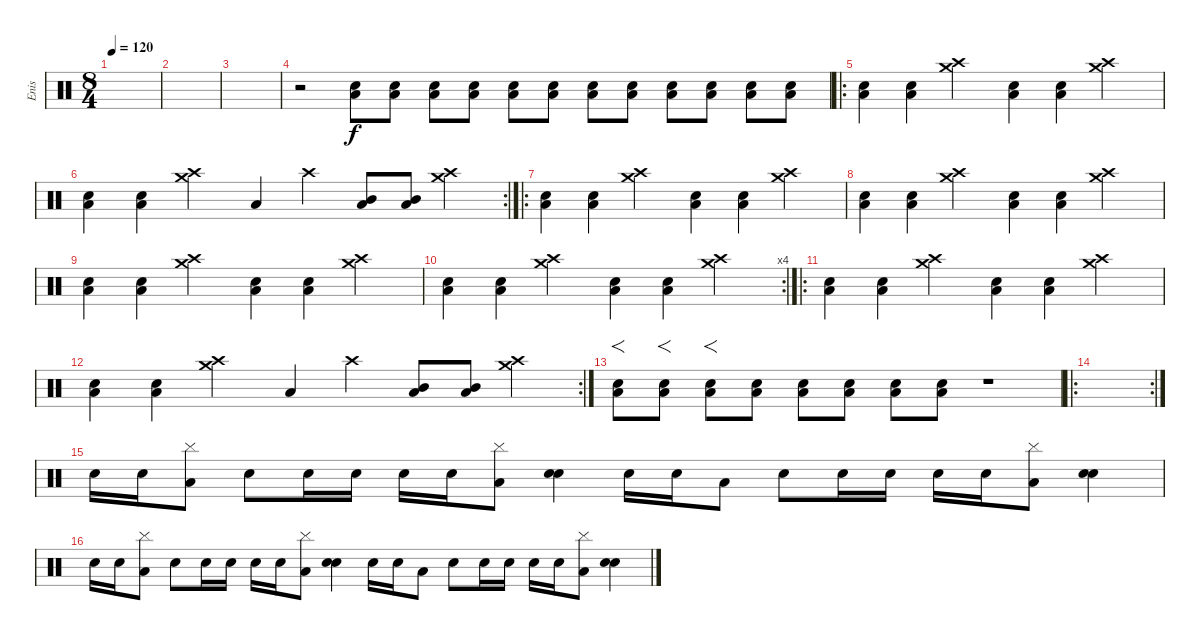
\track ("Enis" "Enis") {instrument percussion}
\staff {score}
\articulation defaults
\ts (8 4)
\tempo 120
\clef neutral
\ks c
|
|
|
r.2 ("Snare (hit) 2" "Low Floor Tom (hit)").8 ("Snare (hit) 2" "Low Floor Tom (hit)").8 ("Snare (hit) 2" "Low Floor Tom (hit)").8 ("Snare (hit) 2" "Low Floor Tom (hit)").8 ("Snare (hit) 2" "Low Floor Tom (hit)").8 ("Snare (hit) 2" "Low Floor Tom (hit)").8 ("Snare (hit) 2" "Low Floor Tom (hit)").8 ("Snare (hit) 2" "Low Floor Tom (hit)").8 ("Snare (hit) 2" "Low Floor Tom (hit)").8 ("Snare (hit) 2" "Low Floor Tom (hit)").8 ("Snare (hit) 2" "Low Floor Tom (hit)").8 ("Snare (hit) 2" "Low Floor Tom (hit)").8 |
\ro
("Low Floor Tom (hit)" "Snare (hit) 2").4 ("Low Floor Tom (hit)" "Snare (hit) 2").4 ("Crash high (hit)" "Crash medium (hit)").2 ("Low Floor Tom (hit)" "Snare (hit) 2").4 ("Low Floor Tom (hit)" "Snare (hit) 2").4 ("Crash medium (hit)" "Crash high (hit)").2 |
\rc 2
("Low Floor Tom (hit)" "Snare (hit) 2").4 ("Low Floor Tom (hit)" "Snare (hit) 2").4 ("Crash high (hit)" "Crash medium (hit)").2 "Low Floor Tom (hit)".4 "Crash high (hit)".4 ("Low Floor Tom (hit)" "Mid Tom (hit)").8 ("Low Floor Tom (hit)" "Mid Tom (hit)").8 ("Crash high (hit)" "Crash medium (hit)").4 |
\ro
("Low Floor Tom (hit)" "Snare (hit) 2").4 ("Low Floor Tom (hit)" "Snare (hit) 2").4 ("Crash high (hit)" "Crash medium (hit)").2 ("Low Floor Tom (hit)" "Snare (hit) 2").4 ("Low Floor Tom (hit)" "Snare (hit) 2").4 ("Crash medium (hit)" "Crash high (hit)").2 |
("Low Floor Tom (hit)" "Snare (hit) 2").4 ("Low Floor Tom (hit)" "Snare (hit) 2").4 ("Crash high (hit)" "Crash medium (hit)").2 ("Low Floor Tom (hit)" "Snare (hit) 2").4 ("Low Floor Tom (hit)" "Snare (hit) 2").4 ("Crash medium (hit)" "Crash high (hit)").2 |
("Low Floor Tom (hit)" "Snare (hit) 2").4 ("Low Floor Tom (hit)" "Snare (hit) 2").4 ("Crash high (hit)" "Crash medium (hit)").2 ("Low Floor Tom (hit)" "Snare (hit) 2").4 ("Low Floor Tom (hit)" "Snare (hit) 2").4 ("Crash medium (hit)" "Crash high (hit)").2 |
\rc 4
("Low Floor Tom (hit)" "Snare (hit) 2").4 ("Low Floor Tom (hit)" "Snare (hit) 2").4 ("Crash high (hit)" "Crash medium (hit)").2 ("Low Floor Tom (hit)" "Snare (hit) 2").4 ("Low Floor Tom (hit)" "Snare (hit) 2").4 ("Crash medium (hit)" "Crash high (hit)").2 |
\ro
("Low Floor Tom (hit)" "Snare (hit) 2").4 ("Low Floor Tom (hit)" "Snare (hit) 2").4 ("Crash high (hit)" "Crash medium (hit)").2 ("Low Floor Tom (hit)" "Snare (hit) 2").4 ("Low Floor Tom (hit)" "Snare (hit) 2").4 ("Crash medium (hit)" "Crash high (hit)").2 |
\rc 2
("Low Floor Tom (hit)" "Snare (hit) 2").4 ("Low Floor Tom (hit)" "Snare (hit) 2").4 ("Crash high (hit)" "Crash medium (hit)").2 "Low Floor Tom (hit)".4 "Crash high (hit)".4 ("Low Floor Tom (hit)" "Mid Tom (hit)").8 ("Low Floor Tom (hit)" "Mid Tom (hit)").8 ("Crash high (hit)" "Crash medium (hit)").4 |
("Snare (hit) 2" "Low Floor Tom (hit)").8{f} ("Snare (hit) 2" "Low Floor Tom (hit)").8{f} ("Snare (hit) 2" "Low Floor Tom (hit)").8{f} ("Snare (hit) 2" "Low Floor Tom (hit)").8 ("Snare (hit) 2" "Low Floor Tom (hit)").8 ("Snare (hit) 2" "Low Floor Tom (hit)").8 ("Snare (hit) 2" "Low Floor Tom (hit)").8 ("Snare (hit) 2" "Low Floor Tom (hit)").8 r.1 |
\ro
\rc 2
|
"Snare (hit) 2".16 "Snare (hit) 2".16 ("Low Floor Tom (hit)" "Cymbal (hit)").8 "Snare (hit) 2".8 "Snare (hit) 2".16 "Snare (hit) 2".16 "Snare (hit) 2".16 "Snare (hit) 2".16 ("Low Floor Tom (hit)" "Cymbal (hit)").8 ("Electric Snare (hit)" "Snare (hit) 2").4 "Snare (hit) 2".16 "Snare (hit) 2".16 "Low Floor Tom (hit)".8 "Snare (hit) 2".8 "Snare (hit) 2".16 "Snare (hit) 2".16 "Snare (hit) 2".16 "Snare (hit) 2".16 ("Low Floor Tom (hit)" "Cymbal (hit)").8 ("Snare (hit) 2" "Electric Snare (hit)").4 |
"Snare (hit) 2".16 "Snare (hit) 2".16 ("Low Floor Tom (hit)" "Cymbal (hit)").8 "Snare (hit) 2".8 "Snare (hit) 2".16 "Snare (hit) 2".16 "Snare (hit) 2".16 "Snare (hit) 2".16 ("Low Floor Tom (hit)" "Cymbal (hit)").8 ("Electric Snare (hit)" "Snare (hit) 2").4 "Snare (hit) 2".16 "Snare (hit) 2".16 "Low Floor Tom (hit)".8 "Snare (hit) 2".8 "Snare (hit) 2".16 "Snare (hit) 2".16 "Snare (hit) 2".16 "Snare (hit) 2".16 ("Low Floor Tom (hit)" "Cymbal (hit)").8 ("Snare (hit) 2" "Electric Snare (hit)").4
